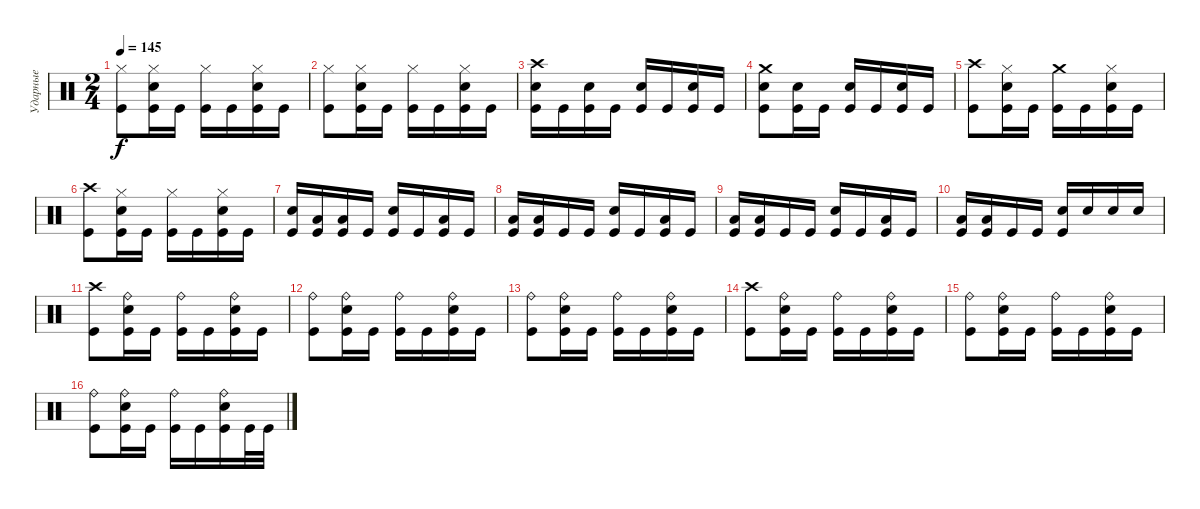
\track ("Ударные" "Ударные") {instrument percussion}
\staff {score}
\articulation defaults
\ts (2 4)
\tempo 145
\clef neutral
\ks c
("Hi-Hat (closed)" "Kick (hit)").8{dy f} ("Hi-Hat (closed)" "Electric Snare (hit)" "Kick (hit)").16 "Kick (hit)".16 ("Hi-Hat (closed)" "Kick (hit)").16 "Kick (hit)".16 ("Hi-Hat (closed)" "Electric Snare (hit)" "Kick (hit)").16 "Kick (hit)".16 |
("Hi-Hat (closed)" "Kick (hit)").8 ("Hi-Hat (closed)" "Electric Snare (hit)" "Kick (hit)").16 "Kick (hit)".16 ("Hi-Hat (closed)" "Kick (hit)").16 "Kick (hit)".16 ("Hi-Hat (closed)" "Electric Snare (hit)" "Kick (hit)").16 "Kick (hit)".16 |
("Crash high (hit)" "Electric Snare (hit)" "Kick (hit)").16 "Kick (hit)".16 ("Electric Snare (hit)" "Kick (hit)").16 "Kick (hit)".16 ("Electric Snare (hit)" "Kick (hit)").16 "Kick (hit)".16 ("Electric Snare (hit)" "Kick (hit)").16 "Kick (hit)".16 |
("Crash medium (hit)" "Electric Snare (hit)" "Kick (hit)").8 ("Electric Snare (hit)" "Kick (hit)").16 "Kick (hit)".16 ("Electric Snare (hit)" "Kick (hit)").16 "Kick (hit)".16 ("Electric Snare (hit)" "Kick (hit)").16 "Kick (hit)".16 |
("Crash high (hit)" "Kick (hit)").8 ("Hi-Hat (closed)" "Electric Snare (hit)" "Kick (hit)").16 "Kick (hit)".16 ("Crash medium (hit)" "Kick (hit)").16 "Kick (hit)".16 ("Hi-Hat (closed)" "Electric Snare (hit)" "Kick (hit)").16 "Kick (hit)".16 |
("Crash high (hit)" "Kick (hit)").8 ("Hi-Hat (closed)" "Electric Snare (hit)" "Kick (hit)").16 "Kick (hit)".16 ("Hi-Hat (closed)" "Kick (hit)").16 "Kick (hit)".16 ("Hi-Hat (closed)" "Electric Snare (hit)" "Kick (hit)").16 "Kick (hit)".16 |
("Electric Snare (hit)" "Kick (hit)").16 ("Low Tom (hit)" "Kick (hit)").16 ("Low Tom (hit)" "Kick (hit)").16 "Kick (hit)".16 ("Electric Snare (hit)" "Kick (hit)").16 "Kick (hit)".16 ("Low Tom (hit)" "Kick (hit)").16 "Kick (hit)".16 |
("Low Tom (hit)" "Kick (hit)").16 ("Low Tom (hit)" "Kick (hit)").16 "Kick (hit)".16 "Kick (hit)".16 ("Electric Snare (hit)" "Kick (hit)").16 "Kick (hit)".16 ("Low Tom (hit)" "Kick (hit)").16 "Kick (hit)".16 |
("Low Tom (hit)" "Kick (hit)").16 ("Low Tom (hit)" "Kick (hit)").16 "Kick (hit)".16 "Kick (hit)".16 ("Electric Snare (hit)" "Kick (hit)").16 "Kick (hit)".16 ("Low Tom (hit)" "Kick (hit)").16 "Kick (hit)".16 |
("Low Tom (hit)" "Kick (hit)").16 ("Low Tom (hit)" "Kick (hit)").16 "Kick (hit)".16 "Kick (hit)".16 ("Electric Snare (hit)" "Kick (hit)").16 "Electric Snare (hit)".16 "Electric Snare (hit)".16 "Electric Snare (hit)".16 |
("Crash high (hit)" "Kick (hit)").8 ("Ride (bell)" "Electric Snare (hit)" "Kick (hit)").16 "Kick (hit)".16 ("Ride (bell)" "Kick (hit)").16 "Kick (hit)".16 ("Ride (bell)" "Electric Snare (hit)" "Kick (hit)").16 "Kick (hit)".16 |
("Ride (bell)" "Kick (hit)").8 ("Ride (bell)" "Electric Snare (hit)" "Kick (hit)").16 "Kick (hit)".16 ("Ride (bell)" "Kick (hit)").16 "Kick (hit)".16 ("Ride (bell)" "Electric Snare (hit)" "Kick (hit)").16 "Kick (hit)".16 |
("Ride (bell)" "Kick (hit)").8 ("Ride (bell)" "Electric Snare (hit)" "Kick (hit)").16 "Kick (hit)".16 ("Ride (bell)" "Kick (hit)").16 "Kick (hit)".16 ("Ride (bell)" "Electric Snare (hit)" "Kick (hit)").16 "Kick (hit)".16 |
("Crash high (hit)" "Kick (hit)").8 ("Ride (bell)" "Electric Snare (hit)" "Kick (hit)").16 "Kick (hit)".16 ("Ride (bell)" "Kick (hit)").16 "Kick (hit)".16 ("Ride (bell)" "Electric Snare (hit)" "Kick (hit)").16 "Kick (hit)".16 |
("Ride (bell)" "Kick (hit)").8 ("Ride (bell)" "Electric Snare (hit)" "Kick (hit)").16 "Kick (hit)".16 ("Ride (bell)" "Kick (hit)").16 "Kick (hit)".16 ("Ride (bell)" "Electric Snare (hit)" "Kick (hit)").16 "Kick (hit)".16 |
("Ride (bell)" "Kick (hit)").8 ("Ride (bell)" "Electric Snare (hit)" "Kick (hit)").16 "Kick (hit)".16 ("Ride (bell)" "Kick (hit)").16 "Kick (hit)".16 ("Ride (bell)" "Electric Snare (hit)" "Kick (hit)").16 "Kick (hit)".32 "Kick (hit)".32
